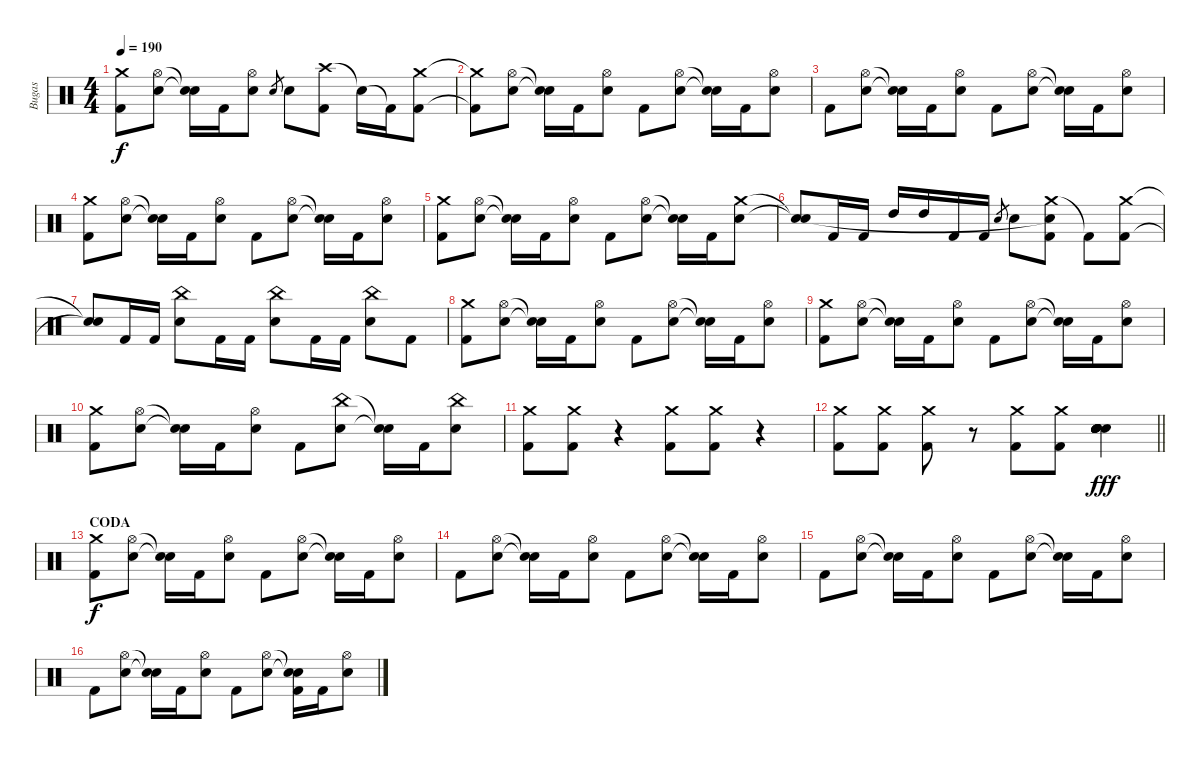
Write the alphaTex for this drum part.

\track ("Bugas" "Bugas") {instrument percussion}
\staff {score}
\articulation defaults
\ts (4 4)
\tempo 190
\clef neutral
\ks c
("Crash medium (hit)" "Kick (hit) 2").8{dy f} ("Hi-Hat (open)" "Electric Snare (hit)").8 ("Snare (hit)"{t} "Snare (hit)"{t}).16 "Kick (hit) 2".16 ("Hi-Hat (open)" "Electric Snare (hit)").8 "Electric Snare (hit)".8{gr} "Electric Snare (hit)".8 ("Crash high (hit)" "Kick (hit) 2").8 "Snare (hit)"{t}.16 "Kick (hit) 2"{t}.16 ("Crash medium (hit)" "Kick (hit) 2").8 |
("Crash medium (hit)"{t} "Kick (hit) 2"{t}).8 ("Hi-Hat (open)" "Electric Snare (hit)").8 ("Snare (hit)"{t} "Snare (hit)"{t}).16 "Kick (hit) 2".16 ("Hi-Hat (open)" "Electric Snare (hit)").8 "Kick (hit) 2".8 ("Hi-Hat (open)" "Electric Snare (hit)").8 ("Snare (hit)"{t} "Snare (hit)"{t}).16 "Kick (hit) 2".16 ("Hi-Hat (open)" "Electric Snare (hit)").8 |
"Kick (hit) 2".8 ("Hi-Hat (open)" "Electric Snare (hit)").8 ("Snare (hit)"{t} "Snare (hit)"{t}).16 "Kick (hit) 2".16 ("Hi-Hat (open)" "Electric Snare (hit)").8 "Kick (hit) 2".8 ("Hi-Hat (open)" "Electric Snare (hit)").8 ("Snare (hit)"{t} "Snare (hit)"{t}).16 "Kick (hit) 2".16 ("Hi-Hat (open)" "Electric Snare (hit)").8 |
("Crash medium (hit)" "Kick (hit) 2").8 ("Hi-Hat (open)" "Electric Snare (hit)").8 ("Snare (hit)"{t} "Snare (hit)"{t}).16 "Kick (hit) 2".16 ("Hi-Hat (open)" "Electric Snare (hit)").8 "Kick (hit) 2".8 ("Hi-Hat (open)" "Electric Snare (hit)").8 ("Snare (hit)"{t} "Snare (hit)"{t}).16 "Kick (hit) 2".16 ("Hi-Hat (open)" "Electric Snare (hit)").8 |
("Crash medium (hit)" "Kick (hit) 2").8 ("Hi-Hat (open)" "Electric Snare (hit)").8 ("Snare (hit)"{t} "Snare (hit)"{t}).16 "Kick (hit) 2".16 ("Hi-Hat (open)" "Electric Snare (hit)").8 "Kick (hit) 2".8 ("Hi-Hat (open)" "Electric Snare (hit)").8 ("Snare (hit)"{t} "Snare (hit)"{t}).16 "Kick (hit) 2".16 ("Crash medium (hit)" "Electric Snare (hit)").8 |
("Snare (hit)"{t} "Snare (hit)"{t}).8 "Kick (hit) 2".16 "Kick (hit) 2".16 "High Tom (hit)".16 "High Tom (hit)".16 "Kick (hit) 2".16 "Kick (hit) 2".16 "Electric Snare (hit)".8{gr} "Electric Snare (hit)".8 ("Crash medium (hit)" "Snare (hit)"{t} "Kick (hit) 2").8 "Kick (hit) 2"{t}.8 ("Crash medium (hit)" "Kick (hit) 2").8 |
("Snare (hit)"{t} "Snare (hit)"{t}).8 "Kick (hit) 2".16 "Kick (hit) 2".16 ("China (hit)" "Electric Snare (hit)").8 "Kick (hit) 2".16 "Kick (hit) 2".16 ("China (hit)" "Electric Snare (hit)").8 "Kick (hit) 2".16 "Kick (hit) 2".16 ("China (hit)" "Electric Snare (hit)").8 "Kick (hit) 2".8 |
("Crash medium (hit)" "Kick (hit) 2").8 ("Hi-Hat (open)" "Electric Snare (hit)").8 ("Snare (hit)"{t} "Snare (hit)"{t}).16 "Kick (hit) 2".16 ("Hi-Hat (open)" "Electric Snare (hit)").8 "Kick (hit) 2".8 ("Hi-Hat (open)" "Electric Snare (hit)").8 ("Snare (hit)"{t} "Snare (hit)"{t}).16 "Kick (hit) 2".16 ("Hi-Hat (open)" "Electric Snare (hit)").8 |
("Crash medium (hit)" "Kick (hit) 2").8 ("Hi-Hat (open)" "Electric Snare (hit)").8 ("Snare (hit)"{t} "Snare (hit)"{t}).16 "Kick (hit) 2".16 ("Hi-Hat (open)" "Electric Snare (hit)").8 "Kick (hit) 2".8 ("Hi-Hat (open)" "Electric Snare (hit)").8 ("Snare (hit)"{t} "Snare (hit)"{t}).16 "Kick (hit) 2".16 ("Hi-Hat (open)" "Electric Snare (hit)").8 |
("Crash medium (hit)" "Kick (hit) 2").8 ("Hi-Hat (open)" "Electric Snare (hit)").8 ("Snare (hit)"{t} "Snare (hit)"{t}).16 "Kick (hit) 2".16 ("Hi-Hat (open)" "Electric Snare (hit)").8 "Kick (hit) 2".8 ("China (hit)" "Electric Snare (hit)").8 ("Snare (hit)"{t} "Snare (hit)"{t}).16 "Kick (hit) 2".16 ("China (hit)" "Electric Snare (hit)").8 |
("Crash medium (hit)" "Kick (hit) 2").8 ("Crash medium (hit)" "Kick (hit) 2").8 r.4 ("Crash medium (hit)" "Kick (hit) 2").8 ("Crash medium (hit)" "Kick (hit) 2").8 r.4 |
\barLineRight lightlight
("Crash medium (hit)" "Kick (hit) 2").8 ("Crash medium (hit)" "Kick (hit) 2").8 ("Crash medium (hit)" "Kick (hit) 2").8 r.8 ("Crash medium (hit)" "Kick (hit) 2").8 ("Crash medium (hit)" "Kick (hit) 2").8 ("Electric Snare (hit)" "Electric Snare (hit)" "Electric Snare (hit)" "Electric Snare (hit)" "Electric Snare (hit)" "Electric Snare (hit)").4{dy fff} |
\section ("" "CODA")
("Crash medium (hit)" "Kick (hit) 2").8{dy f} ("Hi-Hat (open)" "Electric Snare (hit)").8 ("Snare (hit)"{t} "Snare (hit)"{t}).16 "Kick (hit) 2".16 ("Hi-Hat (open)" "Electric Snare (hit)").8 "Kick (hit) 2".8 ("Hi-Hat (open)" "Electric Snare (hit)").8 ("Snare (hit)"{t} "Snare (hit)"{t}).16 "Kick (hit) 2".16 ("Hi-Hat (open)" "Electric Snare (hit)").8 |
"Kick (hit) 2".8 ("Hi-Hat (open)" "Electric Snare (hit)").8 ("Snare (hit)"{t} "Snare (hit)"{t}).16 "Kick (hit) 2".16 ("Hi-Hat (open)" "Electric Snare (hit)").8 "Kick (hit) 2".8 ("Hi-Hat (open)" "Electric Snare (hit)").8 ("Snare (hit)"{t} "Snare (hit)"{t}).16 "Kick (hit) 2".16 ("Hi-Hat (open)" "Electric Snare (hit)").8 |
"Kick (hit) 2".8 ("Hi-Hat (open)" "Electric Snare (hit)").8 ("Snare (hit)"{t} "Snare (hit)"{t}).16 "Kick (hit) 2".16 ("Hi-Hat (open)" "Electric Snare (hit)").8 "Kick (hit) 2".8 ("Hi-Hat (open)" "Electric Snare (hit)").8 ("Snare (hit)"{t} "Snare (hit)"{t}).16 "Kick (hit) 2".16 ("Hi-Hat (open)" "Electric Snare (hit)").8 |
"Kick (hit) 2".8 ("Hi-Hat (open)" "Electric Snare (hit)").8 ("Snare (hit)"{t} "Snare (hit)"{t}).16 "Kick (hit) 2".16 ("Hi-Hat (open)" "Electric Snare (hit)").8 "Kick (hit) 2".8 ("Hi-Hat (open)" "Electric Snare (hit)").8 ("Snare (hit)"{t} "Snare (hit)"{t} "Kick (hit) 2").16 "Kick (hit) 2".16 ("Hi-Hat (open)" "Electric Snare (hit)").8
